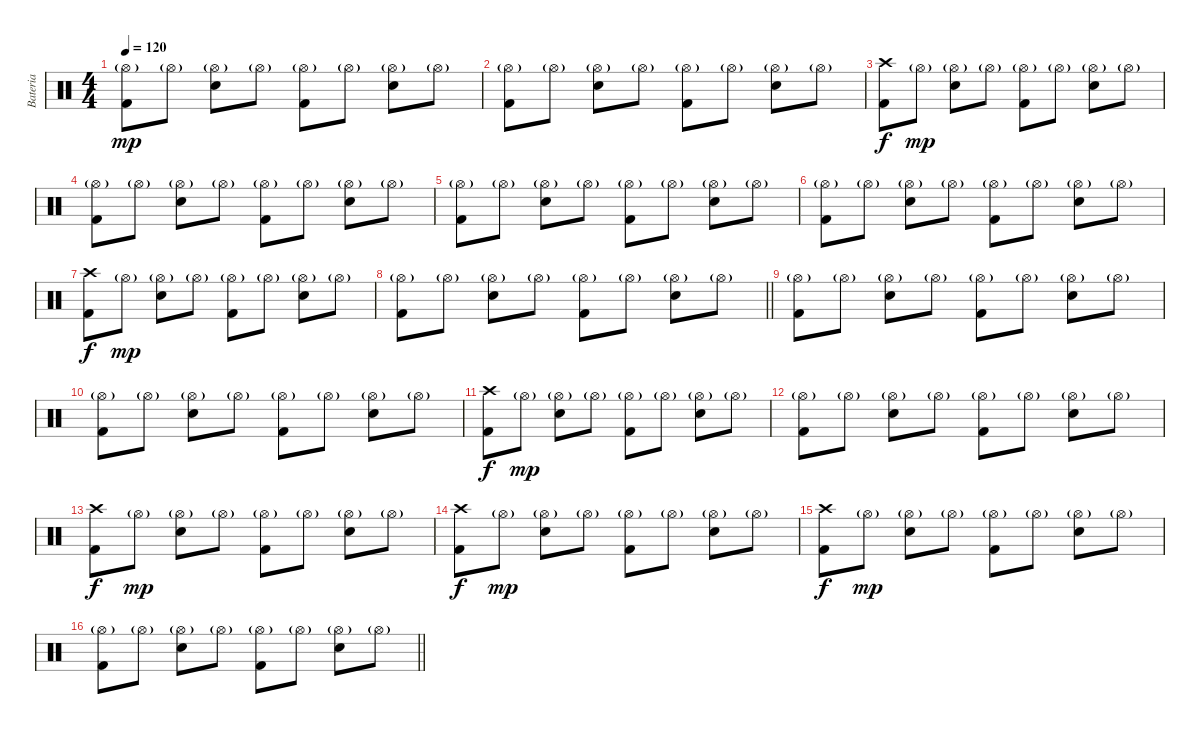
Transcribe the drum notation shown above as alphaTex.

\track ("Bateria" "Bateria") {instrument percussion}
\staff {score}
\articulation defaults
\ts (4 4)
\tempo 120
\clef neutral
\ks c
("Hi-Hat (open)"{g} "Kick (hit) 2").8{dy mp} "Hi-Hat (open)"{g}.8 ("Hi-Hat (open)"{g} "Snare (hit) 2").8 "Hi-Hat (open)"{g}.8 ("Hi-Hat (open)"{g} "Kick (hit) 2").8 "Hi-Hat (open)"{g}.8 ("Hi-Hat (open)"{g} "Snare (hit) 2").8 "Hi-Hat (open)"{g}.8 |
("Hi-Hat (open)"{g} "Kick (hit) 2").8 "Hi-Hat (open)"{g}.8 ("Hi-Hat (open)"{g} "Snare (hit) 2").8 "Hi-Hat (open)"{g}.8 ("Hi-Hat (open)"{g} "Kick (hit) 2").8 "Hi-Hat (open)"{g}.8 ("Hi-Hat (open)"{g} "Snare (hit) 2").8 "Hi-Hat (open)"{g}.8 |
("Crash high (hit)" "Kick (hit) 2").8{dy f} "Hi-Hat (open)"{g}.8{dy mp} ("Hi-Hat (open)"{g} "Snare (hit) 2").8 "Hi-Hat (open)"{g}.8 ("Hi-Hat (open)"{g} "Kick (hit) 2").8 "Hi-Hat (open)"{g}.8 ("Hi-Hat (open)"{g} "Snare (hit) 2").8 "Hi-Hat (open)"{g}.8 |
("Hi-Hat (open)"{g} "Kick (hit) 2").8 "Hi-Hat (open)"{g}.8 ("Hi-Hat (open)"{g} "Snare (hit) 2").8 "Hi-Hat (open)"{g}.8 ("Hi-Hat (open)"{g} "Kick (hit) 2").8 "Hi-Hat (open)"{g}.8 ("Hi-Hat (open)"{g} "Snare (hit) 2").8 "Hi-Hat (open)"{g}.8 |
("Hi-Hat (open)"{g} "Kick (hit) 2").8 "Hi-Hat (open)"{g}.8 ("Hi-Hat (open)"{g} "Snare (hit) 2").8 "Hi-Hat (open)"{g}.8 ("Hi-Hat (open)"{g} "Kick (hit) 2").8 "Hi-Hat (open)"{g}.8 ("Hi-Hat (open)"{g} "Snare (hit) 2").8 "Hi-Hat (open)"{g}.8 |
("Hi-Hat (open)"{g} "Kick (hit) 2").8 "Hi-Hat (open)"{g}.8 ("Hi-Hat (open)"{g} "Snare (hit) 2").8 "Hi-Hat (open)"{g}.8 ("Hi-Hat (open)"{g} "Kick (hit) 2").8 "Hi-Hat (open)"{g}.8 ("Hi-Hat (open)"{g} "Snare (hit) 2").8 "Hi-Hat (open)"{g}.8 |
("Crash high (hit)" "Kick (hit) 2").8{dy f} "Hi-Hat (open)"{g}.8{dy mp} ("Hi-Hat (open)"{g} "Snare (hit) 2").8 "Hi-Hat (open)"{g}.8 ("Hi-Hat (open)"{g} "Kick (hit) 2").8 "Hi-Hat (open)"{g}.8 ("Hi-Hat (open)"{g} "Snare (hit) 2").8 "Hi-Hat (open)"{g}.8 |
\barLineRight lightlight
("Hi-Hat (open)"{g} "Kick (hit) 2").8 "Hi-Hat (open)"{g}.8 ("Hi-Hat (open)"{g} "Snare (hit) 2").8 "Hi-Hat (open)"{g}.8 ("Hi-Hat (open)"{g} "Kick (hit) 2").8 "Hi-Hat (open)"{g}.8 ("Hi-Hat (open)"{g} "Snare (hit) 2").8 "Hi-Hat (open)"{g}.8 |
("Hi-Hat (open)"{g} "Kick (hit) 2").8 "Hi-Hat (open)"{g}.8 ("Hi-Hat (open)"{g} "Snare (hit) 2").8 "Hi-Hat (open)"{g}.8 ("Hi-Hat (open)"{g} "Kick (hit) 2").8 "Hi-Hat (open)"{g}.8 ("Hi-Hat (open)"{g} "Snare (hit) 2").8 "Hi-Hat (open)"{g}.8 |
("Hi-Hat (open)"{g} "Kick (hit) 2").8 "Hi-Hat (open)"{g}.8 ("Hi-Hat (open)"{g} "Snare (hit) 2").8 "Hi-Hat (open)"{g}.8 ("Hi-Hat (open)"{g} "Kick (hit) 2").8 "Hi-Hat (open)"{g}.8 ("Hi-Hat (open)"{g} "Snare (hit) 2").8 "Hi-Hat (open)"{g}.8 |
("Crash high (hit)" "Kick (hit) 2").8{dy f} "Hi-Hat (open)"{g}.8{dy mp} ("Hi-Hat (open)"{g} "Snare (hit) 2").8 "Hi-Hat (open)"{g}.8 ("Hi-Hat (open)"{g} "Kick (hit) 2").8 "Hi-Hat (open)"{g}.8 ("Hi-Hat (open)"{g} "Snare (hit) 2").8 "Hi-Hat (open)"{g}.8 |
("Hi-Hat (open)"{g} "Kick (hit) 2").8 "Hi-Hat (open)"{g}.8 ("Hi-Hat (open)"{g} "Snare (hit) 2").8 "Hi-Hat (open)"{g}.8 ("Hi-Hat (open)"{g} "Kick (hit) 2").8 "Hi-Hat (open)"{g}.8 ("Hi-Hat (open)"{g} "Snare (hit) 2").8 "Hi-Hat (open)"{g}.8 |
("Crash high (hit)" "Kick (hit) 2").8{dy f} "Hi-Hat (open)"{g}.8{dy mp} ("Hi-Hat (open)"{g} "Snare (hit) 2").8 "Hi-Hat (open)"{g}.8 ("Hi-Hat (open)"{g} "Kick (hit) 2").8 "Hi-Hat (open)"{g}.8 ("Hi-Hat (open)"{g} "Snare (hit) 2").8 "Hi-Hat (open)"{g}.8 |
("Crash high (hit)" "Kick (hit) 2").8{dy f} "Hi-Hat (open)"{g}.8{dy mp} ("Hi-Hat (open)"{g} "Snare (hit) 2").8 "Hi-Hat (open)"{g}.8 ("Hi-Hat (open)"{g} "Kick (hit) 2").8 "Hi-Hat (open)"{g}.8 ("Hi-Hat (open)"{g} "Snare (hit) 2").8 "Hi-Hat (open)"{g}.8 |
("Crash high (hit)" "Kick (hit) 2").8{dy f} "Hi-Hat (open)"{g}.8{dy mp} ("Hi-Hat (open)"{g} "Snare (hit) 2").8 "Hi-Hat (open)"{g}.8 ("Hi-Hat (open)"{g} "Kick (hit) 2").8 "Hi-Hat (open)"{g}.8 ("Hi-Hat (open)"{g} "Snare (hit) 2").8 "Hi-Hat (open)"{g}.8 |
\barLineRight lightlight
("Hi-Hat (open)"{g} "Kick (hit) 2").8 "Hi-Hat (open)"{g}.8 ("Hi-Hat (open)"{g} "Snare (hit) 2").8 "Hi-Hat (open)"{g}.8 ("Hi-Hat (open)"{g} "Kick (hit) 2").8 "Hi-Hat (open)"{g}.8 ("Hi-Hat (open)"{g} "Snare (hit) 2").8 "Hi-Hat (open)"{g}.8
